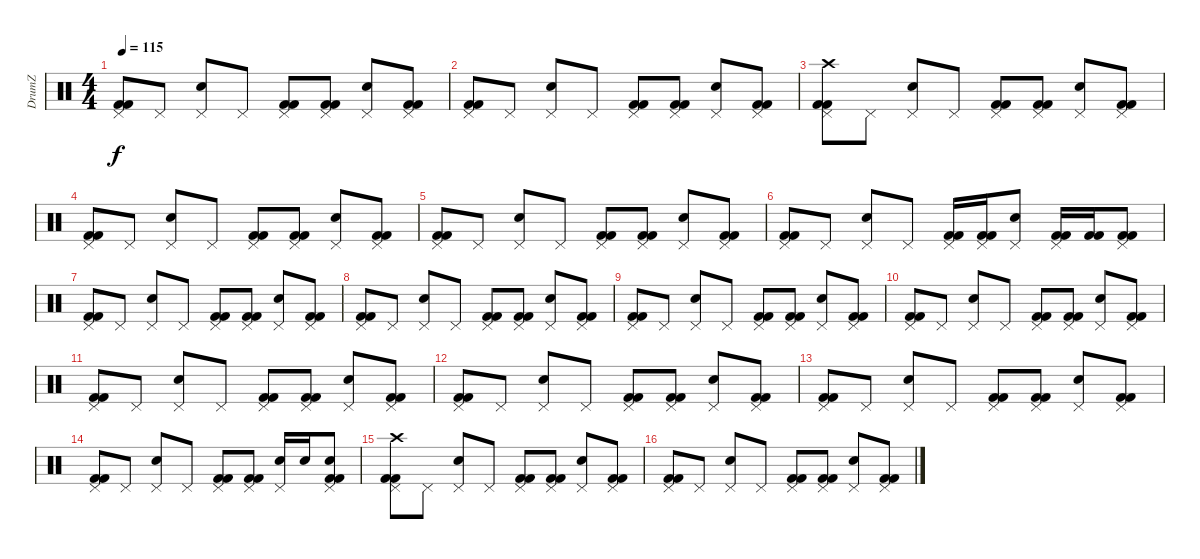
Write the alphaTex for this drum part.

\track ("DrumZ" "DrumZ") {instrument percussion}
\staff {score}
\articulation defaults
\ts (4 4)
\tempo 115
\clef neutral
\ks c
("Pedal Hi-Hat (hit)" "Kick (hit) 2" "Kick (hit) 2").8{dy f} "Pedal Hi-Hat (hit)".8 ("Pedal Hi-Hat (hit)" "Electric Snare (hit)").8 "Pedal Hi-Hat (hit)".8 ("Pedal Hi-Hat (hit)" "Kick (hit) 2" "Kick (hit) 2").8 ("Pedal Hi-Hat (hit)" "Kick (hit) 2" "Kick (hit) 2").8 ("Pedal Hi-Hat (hit)" "Electric Snare (hit)").8 ("Pedal Hi-Hat (hit)" "Kick (hit) 2" "Kick (hit) 2").8 |
("Pedal Hi-Hat (hit)" "Kick (hit) 2" "Kick (hit) 2").8 "Pedal Hi-Hat (hit)".8 ("Pedal Hi-Hat (hit)" "Electric Snare (hit)").8 "Pedal Hi-Hat (hit)".8 ("Pedal Hi-Hat (hit)" "Kick (hit) 2" "Kick (hit) 2").8 ("Pedal Hi-Hat (hit)" "Kick (hit) 2" "Kick (hit) 2").8 ("Pedal Hi-Hat (hit)" "Electric Snare (hit)").8 ("Pedal Hi-Hat (hit)" "Kick (hit) 2" "Kick (hit) 2").8 |
("Pedal Hi-Hat (hit)" "Crash high (hit)" "Kick (hit) 2" "Kick (hit) 2").8 "Pedal Hi-Hat (hit)".8 ("Pedal Hi-Hat (hit)" "Electric Snare (hit)").8 "Pedal Hi-Hat (hit)".8 ("Pedal Hi-Hat (hit)" "Kick (hit) 2" "Kick (hit) 2").8 ("Pedal Hi-Hat (hit)" "Kick (hit) 2" "Kick (hit) 2").8 ("Pedal Hi-Hat (hit)" "Electric Snare (hit)").8 ("Pedal Hi-Hat (hit)" "Kick (hit) 2" "Kick (hit) 2").8 |
("Pedal Hi-Hat (hit)" "Kick (hit) 2" "Kick (hit) 2").8 "Pedal Hi-Hat (hit)".8 ("Pedal Hi-Hat (hit)" "Electric Snare (hit)").8 "Pedal Hi-Hat (hit)".8 ("Pedal Hi-Hat (hit)" "Kick (hit) 2" "Kick (hit) 2").8 ("Pedal Hi-Hat (hit)" "Kick (hit) 2" "Kick (hit) 2").8 ("Pedal Hi-Hat (hit)" "Electric Snare (hit)").8 ("Pedal Hi-Hat (hit)" "Kick (hit) 2" "Kick (hit) 2").8 |
("Pedal Hi-Hat (hit)" "Kick (hit) 2" "Kick (hit) 2").8 "Pedal Hi-Hat (hit)".8 ("Pedal Hi-Hat (hit)" "Electric Snare (hit)").8 "Pedal Hi-Hat (hit)".8 ("Pedal Hi-Hat (hit)" "Kick (hit) 2" "Kick (hit) 2").8 ("Pedal Hi-Hat (hit)" "Kick (hit) 2" "Kick (hit) 2").8 ("Pedal Hi-Hat (hit)" "Electric Snare (hit)").8 ("Pedal Hi-Hat (hit)" "Kick (hit) 2" "Kick (hit) 2").8 |
("Pedal Hi-Hat (hit)" "Kick (hit) 2" "Kick (hit) 2").8 "Pedal Hi-Hat (hit)".8 ("Pedal Hi-Hat (hit)" "Electric Snare (hit)").8 "Pedal Hi-Hat (hit)".8 ("Pedal Hi-Hat (hit)" "Kick (hit) 2" "Kick (hit) 2").16 ("Pedal Hi-Hat (hit)" "Kick (hit) 2" "Kick (hit) 2").16 ("Pedal Hi-Hat (hit)" "Electric Snare (hit)").8 ("Pedal Hi-Hat (hit)" "Kick (hit) 2" "Kick (hit) 2").16 ("Kick (hit) 2" "Kick (hit) 2").16 ("Pedal Hi-Hat (hit)" "Kick (hit) 2" "Kick (hit) 2").8 |
("Pedal Hi-Hat (hit)" "Kick (hit) 2" "Kick (hit) 2").8 "Pedal Hi-Hat (hit)".8 ("Pedal Hi-Hat (hit)" "Electric Snare (hit)").8 "Pedal Hi-Hat (hit)".8 ("Pedal Hi-Hat (hit)" "Kick (hit) 2" "Kick (hit) 2").8 ("Pedal Hi-Hat (hit)" "Kick (hit) 2" "Kick (hit) 2").8 ("Pedal Hi-Hat (hit)" "Electric Snare (hit)").8 ("Pedal Hi-Hat (hit)" "Kick (hit) 2" "Kick (hit) 2").8 |
("Pedal Hi-Hat (hit)" "Kick (hit) 2" "Kick (hit) 2").8 "Pedal Hi-Hat (hit)".8 ("Pedal Hi-Hat (hit)" "Electric Snare (hit)").8 "Pedal Hi-Hat (hit)".8 ("Pedal Hi-Hat (hit)" "Kick (hit) 2" "Kick (hit) 2").8 ("Pedal Hi-Hat (hit)" "Kick (hit) 2" "Kick (hit) 2").8 ("Pedal Hi-Hat (hit)" "Electric Snare (hit)").8 ("Pedal Hi-Hat (hit)" "Kick (hit) 2" "Kick (hit) 2").8 |
("Pedal Hi-Hat (hit)" "Kick (hit) 2" "Kick (hit) 2").8 "Pedal Hi-Hat (hit)".8 ("Pedal Hi-Hat (hit)" "Electric Snare (hit)").8 "Pedal Hi-Hat (hit)".8 ("Pedal Hi-Hat (hit)" "Kick (hit) 2" "Kick (hit) 2").8 ("Pedal Hi-Hat (hit)" "Kick (hit) 2" "Kick (hit) 2").8 ("Pedal Hi-Hat (hit)" "Electric Snare (hit)").8 ("Pedal Hi-Hat (hit)" "Kick (hit) 2" "Kick (hit) 2").8 |
("Pedal Hi-Hat (hit)" "Kick (hit) 2" "Kick (hit) 2").8 "Pedal Hi-Hat (hit)".8 ("Pedal Hi-Hat (hit)" "Electric Snare (hit)").8 "Pedal Hi-Hat (hit)".8 ("Pedal Hi-Hat (hit)" "Kick (hit) 2" "Kick (hit) 2").8 ("Pedal Hi-Hat (hit)" "Kick (hit) 2" "Kick (hit) 2").8 ("Pedal Hi-Hat (hit)" "Electric Snare (hit)").8 ("Pedal Hi-Hat (hit)" "Kick (hit) 2" "Kick (hit) 2").8 |
("Pedal Hi-Hat (hit)" "Kick (hit) 2" "Kick (hit) 2").8 "Pedal Hi-Hat (hit)".8 ("Pedal Hi-Hat (hit)" "Electric Snare (hit)").8 "Pedal Hi-Hat (hit)".8 ("Pedal Hi-Hat (hit)" "Kick (hit) 2" "Kick (hit) 2").8 ("Pedal Hi-Hat (hit)" "Kick (hit) 2" "Kick (hit) 2").8 ("Pedal Hi-Hat (hit)" "Electric Snare (hit)").8 ("Pedal Hi-Hat (hit)" "Kick (hit) 2" "Kick (hit) 2").8 |
("Pedal Hi-Hat (hit)" "Kick (hit) 2" "Kick (hit) 2").8 "Pedal Hi-Hat (hit)".8 ("Pedal Hi-Hat (hit)" "Electric Snare (hit)").8 "Pedal Hi-Hat (hit)".8 ("Pedal Hi-Hat (hit)" "Kick (hit) 2" "Kick (hit) 2").8 ("Pedal Hi-Hat (hit)" "Kick (hit) 2" "Kick (hit) 2").8 ("Pedal Hi-Hat (hit)" "Electric Snare (hit)").8 ("Pedal Hi-Hat (hit)" "Kick (hit) 2" "Kick (hit) 2").8 |
("Pedal Hi-Hat (hit)" "Kick (hit) 2" "Kick (hit) 2").8 "Pedal Hi-Hat (hit)".8 ("Pedal Hi-Hat (hit)" "Electric Snare (hit)").8 "Pedal Hi-Hat (hit)".8 ("Pedal Hi-Hat (hit)" "Kick (hit) 2" "Kick (hit) 2").8 ("Pedal Hi-Hat (hit)" "Kick (hit) 2" "Kick (hit) 2").8 ("Pedal Hi-Hat (hit)" "Electric Snare (hit)").8 ("Pedal Hi-Hat (hit)" "Kick (hit) 2" "Kick (hit) 2").8 |
("Pedal Hi-Hat (hit)" "Kick (hit) 2" "Kick (hit) 2").8 "Pedal Hi-Hat (hit)".8 ("Pedal Hi-Hat (hit)" "Electric Snare (hit)").8 "Pedal Hi-Hat (hit)".8 ("Pedal Hi-Hat (hit)" "Kick (hit) 2" "Kick (hit) 2").8 ("Pedal Hi-Hat (hit)" "Kick (hit) 2" "Kick (hit) 2").8 ("Pedal Hi-Hat (hit)" "Electric Snare (hit)").16 "Electric Snare (hit)".16 ("Pedal Hi-Hat (hit)" "Electric Snare (hit)" "Kick (hit) 2" "Kick (hit) 2").8 |
("Pedal Hi-Hat (hit)" "Crash high (hit)" "Kick (hit) 2" "Kick (hit) 2").8 "Pedal Hi-Hat (hit)".8 ("Pedal Hi-Hat (hit)" "Electric Snare (hit)").8 "Pedal Hi-Hat (hit)".8 ("Pedal Hi-Hat (hit)" "Kick (hit) 2" "Kick (hit) 2").8 ("Pedal Hi-Hat (hit)" "Kick (hit) 2" "Kick (hit) 2").8 ("Pedal Hi-Hat (hit)" "Electric Snare (hit)").8 ("Pedal Hi-Hat (hit)" "Kick (hit) 2" "Kick (hit) 2").8 |
("Pedal Hi-Hat (hit)" "Kick (hit) 2" "Kick (hit) 2").8 "Pedal Hi-Hat (hit)".8 ("Pedal Hi-Hat (hit)" "Electric Snare (hit)").8 "Pedal Hi-Hat (hit)".8 ("Pedal Hi-Hat (hit)" "Kick (hit) 2" "Kick (hit) 2").8 ("Pedal Hi-Hat (hit)" "Kick (hit) 2" "Kick (hit) 2").8 ("Pedal Hi-Hat (hit)" "Electric Snare (hit)").8 ("Pedal Hi-Hat (hit)" "Kick (hit) 2" "Kick (hit) 2").8
